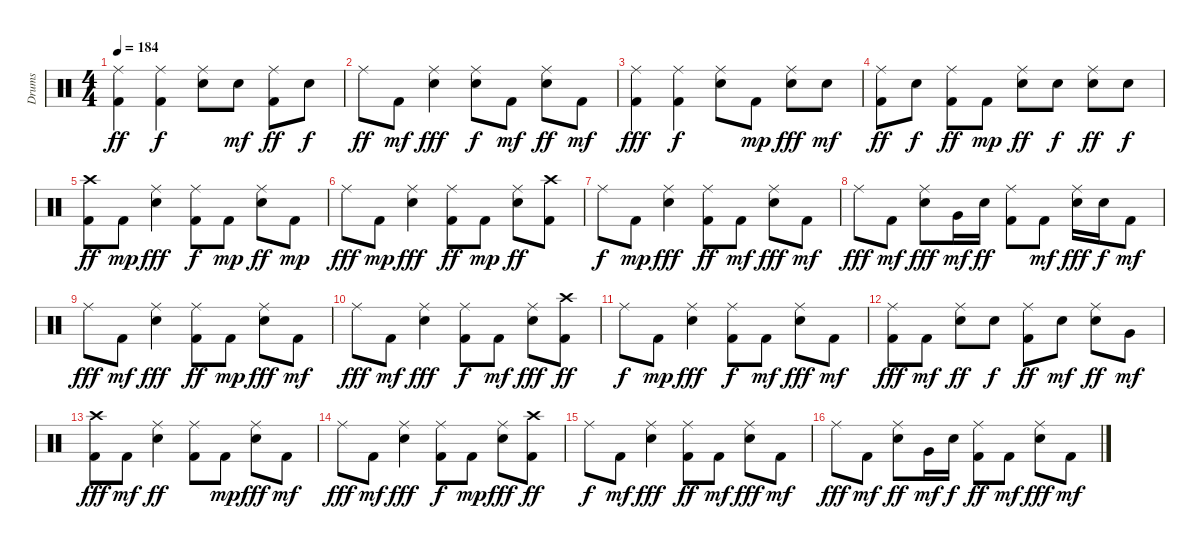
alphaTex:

\track ("Drums" "Drums") {instrument percussion}
\staff {score}
\articulation defaults
\ts (4 4)
\tempo 184
\clef neutral
\ks c
("Kick (hit) 2" "Ride (middle)").4{dy ff} ("Kick (hit) 2" "Ride (middle)").4{dy f} ("Snare (hit) 2" "Ride (middle)").8 "Snare (hit) 2".8{dy mf} ("Kick (hit) 2" "Ride (middle)").8{dy ff} "Snare (hit) 2".8{dy f} |
"Ride (middle)".8{dy ff} "Kick (hit) 2".8{dy mf} ("Snare (hit) 2" "Ride (middle)").4{dy fff} ("Snare (hit) 2" "Ride (middle)").8{dy f} "Kick (hit) 2".8{dy mf} ("Snare (hit) 2" "Ride (middle)").8{dy ff} "Kick (hit) 2".8{dy mf} |
("Kick (hit) 2" "Ride (middle)").4{dy fff} ("Kick (hit) 2" "Ride (middle)").4{dy f} ("Snare (hit) 2" "Ride (middle)").8 "Kick (hit) 2".8{dy mp} ("Snare (hit) 2" "Ride (middle)").8{dy fff} "Snare (hit) 2".8{dy mf} |
("Kick (hit) 2" "Ride (middle)").8{dy ff} "Snare (hit) 2".8{dy f} ("Kick (hit) 2" "Ride (middle)").8{dy ff} "Kick (hit) 2".8{dy mp} ("Snare (hit) 2" "Ride (middle)").8{dy ff} "Snare (hit) 2".8{dy f} ("Snare (hit) 2" "Ride (middle)").8{dy ff} "Snare (hit) 2".8{dy f} |
("Kick (hit) 2" "Crash high (hit)").8{dy ff} "Kick (hit) 2".8{dy mp} ("Snare (hit) 2" "Ride (middle)").4{dy fff} ("Kick (hit) 2" "Ride (middle)").8{dy f} "Kick (hit) 2".8{dy mp} ("Snare (hit) 2" "Ride (middle)").8{dy ff} "Kick (hit) 2".8{dy mp} |
"Ride (middle)".8{dy fff} "Kick (hit) 2".8{dy mp} ("Snare (hit) 2" "Ride (middle)").4{dy fff} ("Kick (hit) 2" "Ride (middle)").8{dy ff} "Kick (hit) 2".8{dy mp} ("Snare (hit) 2" "Ride (middle)").8{dy ff} ("Kick (hit) 2" "Crash high (hit)").8 |
"Ride (middle)".8{dy f} "Kick (hit) 2".8{dy mp} ("Snare (hit) 2" "Ride (middle)").4{dy fff} ("Kick (hit) 2" "Ride (middle)").8{dy ff} "Kick (hit) 2".8{dy mf} ("Snare (hit) 2" "Ride (middle)").8{dy fff} "Kick (hit) 2".8{dy mf} |
"Ride (middle)".8{dy fff} "Kick (hit) 2".8{dy mf} ("Snare (hit) 2" "Ride (middle)").8{dy fff} "Very Low Tom (hit)".16{dy mf} "Snare (hit) 2".16{dy ff} ("Kick (hit) 2" "Ride (middle)").8 "Kick (hit) 2".8{dy mf} ("Snare (hit) 2" "Ride (middle)").16{dy fff} "Snare (hit) 2".16{dy f} "Kick (hit) 2".8{dy mf} |
"Ride (middle)".8{dy fff} "Kick (hit) 2".8{dy mf} ("Snare (hit) 2" "Ride (middle)").4{dy fff} ("Kick (hit) 2" "Ride (middle)").8{dy ff} "Kick (hit) 2".8{dy mp} ("Snare (hit) 2" "Ride (middle)").8{dy fff} "Kick (hit) 2".8{dy mf} |
"Ride (middle)".8{dy fff} "Kick (hit) 2".8{dy mf} ("Snare (hit) 2" "Ride (middle)").4{dy fff} ("Kick (hit) 2" "Ride (middle)").8{dy f} "Kick (hit) 2".8{dy mf} ("Snare (hit) 2" "Ride (middle)").8{dy fff} ("Kick (hit) 2" "Crash high (hit)").8{dy ff} |
"Ride (middle)".8{dy f} "Kick (hit) 2".8{dy mp} ("Snare (hit) 2" "Ride (middle)").4{dy fff} ("Kick (hit) 2" "Ride (middle)").8{dy f} "Kick (hit) 2".8{dy mf} ("Snare (hit) 2" "Ride (middle)").8{dy fff} "Kick (hit) 2".8{dy mf} |
("Kick (hit) 2" "Ride (middle)").8{dy fff} "Kick (hit) 2".8{dy mf} ("Snare (hit) 2" "Ride (middle)").8{dy ff} "Snare (hit) 2".8{dy f} ("Kick (hit) 2" "Ride (middle)").8{dy ff} "Snare (hit) 2".8{dy mf} ("Snare (hit) 2" "Ride (middle)").8{dy ff} "Very Low Tom (hit)".8{dy mf} |
("Kick (hit) 2" "Crash high (hit)").8{dy fff} "Kick (hit) 2".8{dy mf} ("Snare (hit) 2" "Ride (middle)").4{dy ff} ("Kick (hit) 2" "Ride (middle)").8 "Kick (hit) 2".8{dy mp} ("Snare (hit) 2" "Ride (middle)").8{dy fff} "Kick (hit) 2".8{dy mf} |
"Ride (middle)".8{dy fff} "Kick (hit) 2".8{dy mf} ("Snare (hit) 2" "Ride (middle)").4{dy fff} ("Kick (hit) 2" "Ride (middle)").8{dy f} "Kick (hit) 2".8{dy mp} ("Snare (hit) 2" "Ride (middle)").8{dy fff} ("Kick (hit) 2" "Crash high (hit)").8{dy ff} |
"Ride (middle)".8{dy f} "Kick (hit) 2".8{dy mf} ("Snare (hit) 2" "Ride (middle)").4{dy fff} ("Kick (hit) 2" "Ride (middle)").8{dy ff} "Kick (hit) 2".8{dy mf} ("Snare (hit) 2" "Ride (middle)").8{dy fff} "Kick (hit) 2".8{dy mf} |
"Ride (middle)".8{dy fff} "Kick (hit) 2".8{dy mf} ("Snare (hit) 2" "Ride (middle)").8{dy ff} "Very Low Tom (hit)".16{dy mf} "Snare (hit) 2".16{dy f} ("Kick (hit) 2" "Ride (middle)").8{dy ff} "Kick (hit) 2".8{dy mf} ("Snare (hit) 2" "Ride (middle)").8{dy fff} "Kick (hit) 2".8{dy mf}
